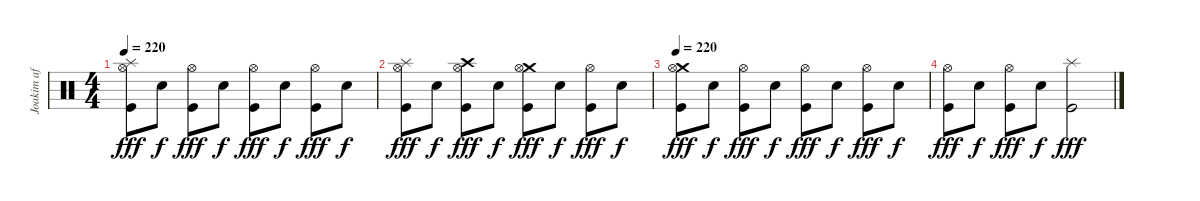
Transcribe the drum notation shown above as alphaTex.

\track ("Joakim af Grave" "Joakim af ") {instrument percussion}
\staff {score}
\articulation defaults
\ts (4 4)
\tempo 220
\clef neutral
\ks c
("Splash (hit)" "Hi-Hat (open)" "Kick (hit)").8{dy fff} "Electric Snare (hit)".8{dy f} ("Hi-Hat (open)" "Kick (hit)").8{dy fff} "Electric Snare (hit)".8{dy f} ("Hi-Hat (open)" "Kick (hit)").8{dy fff} "Electric Snare (hit)".8{dy f} ("Hi-Hat (open)" "Kick (hit)").8{dy fff} "Electric Snare (hit)".8{dy f} |
("Splash (hit)" "Hi-Hat (open)" "Kick (hit)").8{dy fff} "Electric Snare (hit)".8{dy f} ("Crash high (hit)" "Hi-Hat (open)" "Kick (hit)").8{dy fff} "Electric Snare (hit)".8{dy f} ("Crash medium (hit)" "Hi-Hat (open)" "Kick (hit)").8{dy fff} "Electric Snare (hit)".8{dy f} ("Hi-Hat (open)" "Kick (hit)").8{dy fff} "Electric Snare (hit)".8{dy f} |
\tempo 220
("Crash medium (hit)" "Hi-Hat (open)" "Kick (hit)").8{dy fff} "Electric Snare (hit)".8{dy f} ("Hi-Hat (open)" "Kick (hit)").8{dy fff} "Electric Snare (hit)".8{dy f} ("Hi-Hat (open)" "Kick (hit)").8{dy fff} "Electric Snare (hit)".8{dy f} ("Hi-Hat (open)" "Kick (hit)").8{dy fff} "Electric Snare (hit)".8{dy f} |
("Hi-Hat (open)" "Kick (hit)").8{dy fff} "Electric Snare (hit)".8{dy f} ("Hi-Hat (open)" "Kick (hit)").8{dy fff} "Electric Snare (hit)".8{dy f} ("Splash (hit)" "Kick (hit)").2{dy fff}
